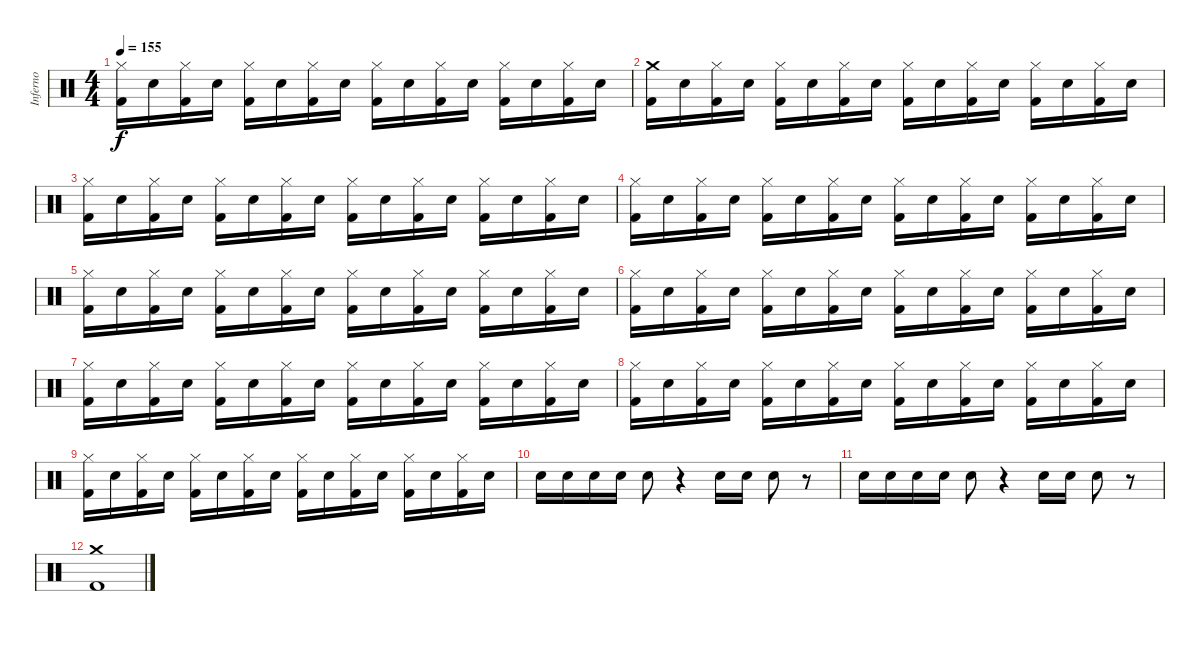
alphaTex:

\track ("Inferno" "Inferno") {instrument percussion}
\staff {score}
\articulation defaults
\ts (4 4)
\tempo 155
\clef neutral
\ks c
("Hi-Hat (closed)" "Kick (hit) 2").16{dy f} "Snare (hit) 2".16 ("Hi-Hat (closed)" "Kick (hit) 2").16 "Snare (hit) 2".16 ("Hi-Hat (closed)" "Kick (hit) 2").16 "Snare (hit) 2".16 ("Hi-Hat (closed)" "Kick (hit) 2").16 "Snare (hit) 2".16 ("Hi-Hat (closed)" "Kick (hit) 2").16 "Snare (hit) 2".16 ("Hi-Hat (closed)" "Kick (hit) 2").16 "Snare (hit) 2".16 ("Hi-Hat (closed)" "Kick (hit) 2").16 "Snare (hit) 2".16 ("Hi-Hat (closed)" "Kick (hit) 2").16 "Snare (hit) 2".16 |
("Crash medium (hit)" "Kick (hit) 2").16 "Snare (hit) 2".16 ("Hi-Hat (closed)" "Kick (hit) 2").16 "Snare (hit) 2".16 ("Hi-Hat (closed)" "Kick (hit) 2").16 "Snare (hit) 2".16 ("Hi-Hat (closed)" "Kick (hit) 2").16 "Snare (hit) 2".16 ("Hi-Hat (closed)" "Kick (hit) 2").16 "Snare (hit) 2".16 ("Hi-Hat (closed)" "Kick (hit) 2").16 "Snare (hit) 2".16 ("Hi-Hat (closed)" "Kick (hit) 2").16 "Snare (hit) 2".16 ("Hi-Hat (closed)" "Kick (hit) 2").16 "Snare (hit) 2".16 |
("Hi-Hat (closed)" "Kick (hit) 2").16 "Snare (hit) 2".16 ("Hi-Hat (closed)" "Kick (hit) 2").16 "Snare (hit) 2".16 ("Hi-Hat (closed)" "Kick (hit) 2").16 "Snare (hit) 2".16 ("Hi-Hat (closed)" "Kick (hit) 2").16 "Snare (hit) 2".16 ("Hi-Hat (closed)" "Kick (hit) 2").16 "Snare (hit) 2".16 ("Hi-Hat (closed)" "Kick (hit) 2").16 "Snare (hit) 2".16 ("Hi-Hat (closed)" "Kick (hit) 2").16 "Snare (hit) 2".16 ("Hi-Hat (closed)" "Kick (hit) 2").16 "Snare (hit) 2".16 |
("Hi-Hat (closed)" "Kick (hit) 2").16 "Snare (hit) 2".16 ("Hi-Hat (closed)" "Kick (hit) 2").16 "Snare (hit) 2".16 ("Hi-Hat (closed)" "Kick (hit) 2").16 "Snare (hit) 2".16 ("Hi-Hat (closed)" "Kick (hit) 2").16 "Snare (hit) 2".16 ("Hi-Hat (closed)" "Kick (hit) 2").16 "Snare (hit) 2".16 ("Hi-Hat (closed)" "Kick (hit) 2").16 "Snare (hit) 2".16 ("Hi-Hat (closed)" "Kick (hit) 2").16 "Snare (hit) 2".16 ("Hi-Hat (closed)" "Kick (hit) 2").16 "Snare (hit) 2".16 |
("Hi-Hat (closed)" "Kick (hit) 2").16 "Snare (hit) 2".16 ("Hi-Hat (closed)" "Kick (hit) 2").16 "Snare (hit) 2".16 ("Hi-Hat (closed)" "Kick (hit) 2").16 "Snare (hit) 2".16 ("Hi-Hat (closed)" "Kick (hit) 2").16 "Snare (hit) 2".16 ("Hi-Hat (closed)" "Kick (hit) 2").16 "Snare (hit) 2".16 ("Hi-Hat (closed)" "Kick (hit) 2").16 "Snare (hit) 2".16 ("Hi-Hat (closed)" "Kick (hit) 2").16 "Snare (hit) 2".16 ("Hi-Hat (closed)" "Kick (hit) 2").16 "Snare (hit) 2".16 |
("Hi-Hat (closed)" "Kick (hit) 2").16 "Snare (hit) 2".16 ("Hi-Hat (closed)" "Kick (hit) 2").16 "Snare (hit) 2".16 ("Hi-Hat (closed)" "Kick (hit) 2").16 "Snare (hit) 2".16 ("Hi-Hat (closed)" "Kick (hit) 2").16 "Snare (hit) 2".16 ("Hi-Hat (closed)" "Kick (hit) 2").16 "Snare (hit) 2".16 ("Hi-Hat (closed)" "Kick (hit) 2").16 "Snare (hit) 2".16 ("Hi-Hat (closed)" "Kick (hit) 2").16 "Snare (hit) 2".16 ("Hi-Hat (closed)" "Kick (hit) 2").16 "Snare (hit) 2".16 |
("Hi-Hat (closed)" "Kick (hit) 2").16 "Snare (hit) 2".16 ("Hi-Hat (closed)" "Kick (hit) 2").16 "Snare (hit) 2".16 ("Hi-Hat (closed)" "Kick (hit) 2").16 "Snare (hit) 2".16 ("Hi-Hat (closed)" "Kick (hit) 2").16 "Snare (hit) 2".16 ("Hi-Hat (closed)" "Kick (hit) 2").16 "Snare (hit) 2".16 ("Hi-Hat (closed)" "Kick (hit) 2").16 "Snare (hit) 2".16 ("Hi-Hat (closed)" "Kick (hit) 2").16 "Snare (hit) 2".16 ("Hi-Hat (closed)" "Kick (hit) 2").16 "Snare (hit) 2".16 |
("Hi-Hat (closed)" "Kick (hit) 2").16 "Snare (hit) 2".16 ("Hi-Hat (closed)" "Kick (hit) 2").16 "Snare (hit) 2".16 ("Hi-Hat (closed)" "Kick (hit) 2").16 "Snare (hit) 2".16 ("Hi-Hat (closed)" "Kick (hit) 2").16 "Snare (hit) 2".16 ("Hi-Hat (closed)" "Kick (hit) 2").16 "Snare (hit) 2".16 ("Hi-Hat (closed)" "Kick (hit) 2").16 "Snare (hit) 2".16 ("Hi-Hat (closed)" "Kick (hit) 2").16 "Snare (hit) 2".16 ("Hi-Hat (closed)" "Kick (hit) 2").16 "Snare (hit) 2".16 |
("Hi-Hat (closed)" "Kick (hit) 2").16 "Snare (hit) 2".16 ("Hi-Hat (closed)" "Kick (hit) 2").16 "Snare (hit) 2".16 ("Hi-Hat (closed)" "Kick (hit) 2").16 "Snare (hit) 2".16 ("Hi-Hat (closed)" "Kick (hit) 2").16 "Snare (hit) 2".16 ("Hi-Hat (closed)" "Kick (hit) 2").16 "Snare (hit) 2".16 ("Hi-Hat (closed)" "Kick (hit) 2").16 "Snare (hit) 2".16 ("Hi-Hat (closed)" "Kick (hit) 2").16 "Snare (hit) 2".16 ("Hi-Hat (closed)" "Kick (hit) 2").16 "Snare (hit) 2".16 |
"Snare (hit) 2".16 "Snare (hit) 2".16 "Snare (hit) 2".16 "Snare (hit) 2".16 "Snare (hit) 2".8 r.4 "Snare (hit) 2".16 "Snare (hit) 2".16 "Snare (hit) 2".8 r.8 |
"Snare (hit) 2".16 "Snare (hit) 2".16 "Snare (hit) 2".16 "Snare (hit) 2".16 "Snare (hit) 2".8 r.4 "Snare (hit) 2".16 "Snare (hit) 2".16 "Snare (hit) 2".8 r.8 |
("Crash medium (hit)" "Kick (hit) 2").1
